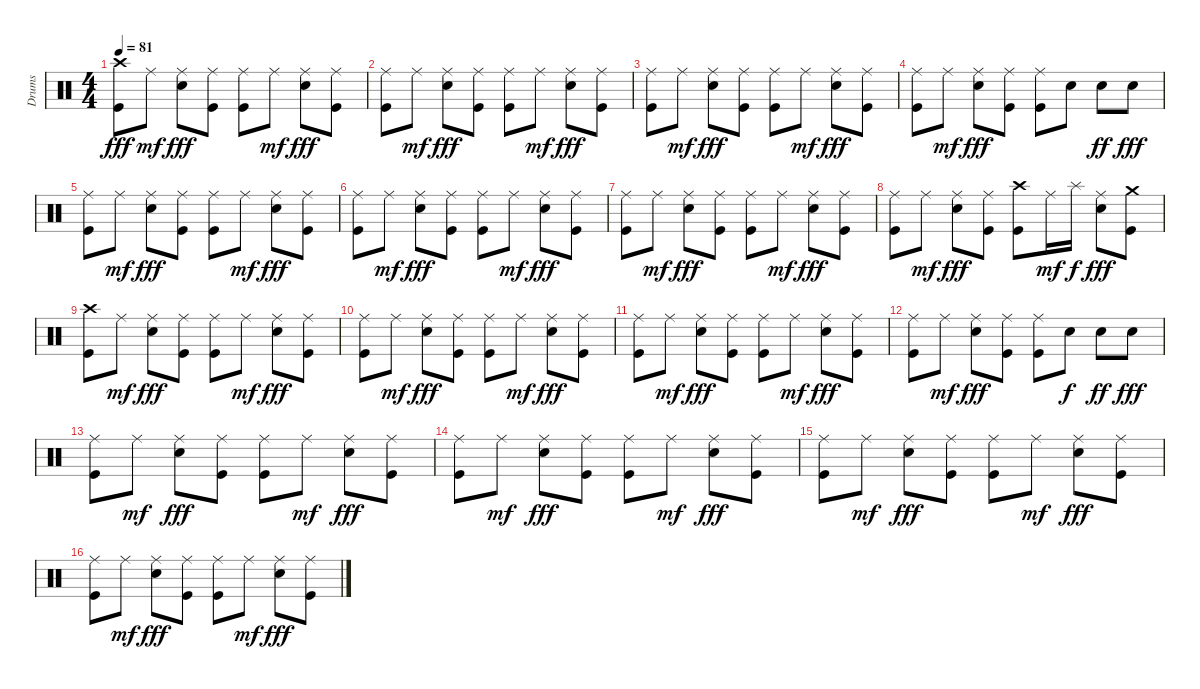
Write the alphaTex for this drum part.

\track ("Drums" "Drums") {instrument percussion}
\staff {score}
\articulation defaults
\ts (4 4)
\tempo 81
\clef neutral
\ks c
("Crash high (hit)" "Kick (hit)").8{dy fff} "Ride (middle)".8{dy mf} ("Ride (middle)" "Snare (hit) 2").8{dy fff} ("Ride (middle)" "Kick (hit)").8 ("Ride (middle)" "Kick (hit)").8 "Ride (middle)".8{dy mf} ("Ride (middle)" "Snare (hit) 2").8{dy fff} ("Ride (middle)" "Kick (hit)").8 |
("Ride (middle)" "Kick (hit)").8 "Ride (middle)".8{dy mf} ("Ride (middle)" "Snare (hit) 2").8{dy fff} ("Ride (middle)" "Kick (hit)").8 ("Ride (middle)" "Kick (hit)").8 "Ride (middle)".8{dy mf} ("Ride (middle)" "Snare (hit) 2").8{dy fff} ("Ride (middle)" "Kick (hit)").8 |
("Ride (middle)" "Kick (hit)").8 "Ride (middle)".8{dy mf} ("Ride (middle)" "Snare (hit) 2").8{dy fff} ("Ride (middle)" "Kick (hit)").8 ("Ride (middle)" "Kick (hit)").8 "Ride (middle)".8{dy mf} ("Ride (middle)" "Snare (hit) 2").8{dy fff} ("Ride (middle)" "Kick (hit)").8 |
("Ride (middle)" "Kick (hit)").8 "Ride (middle)".8{dy mf} ("Ride (middle)" "Snare (hit) 2").8{dy fff} ("Ride (middle)" "Kick (hit)").8 ("Ride (middle)" "Kick (hit)").8 "Snare (hit) 2".8 "Snare (hit) 2".8{dy ff} "Snare (hit) 2".8{dy fff} |
("Ride (middle)" "Kick (hit)").8 "Ride (middle)".8{dy mf} ("Ride (middle)" "Snare (hit) 2").8{dy fff} ("Ride (middle)" "Kick (hit)").8 ("Ride (middle)" "Kick (hit)").8 "Ride (middle)".8{dy mf} ("Ride (middle)" "Snare (hit) 2").8{dy fff} ("Ride (middle)" "Kick (hit)").8 |
("Ride (middle)" "Kick (hit)").8 "Ride (middle)".8{dy mf} ("Ride (middle)" "Snare (hit) 2").8{dy fff} ("Ride (middle)" "Kick (hit)").8 ("Ride (middle)" "Kick (hit)").8 "Ride (middle)".8{dy mf} ("Ride (middle)" "Snare (hit) 2").8{dy fff} ("Ride (middle)" "Kick (hit)").8 |
("Ride (middle)" "Kick (hit)").8 "Ride (middle)".8{dy mf} ("Ride (middle)" "Snare (hit) 2").8{dy fff} ("Ride (middle)" "Kick (hit)").8 ("Ride (middle)" "Kick (hit)").8 "Ride (middle)".8{dy mf} ("Ride (middle)" "Snare (hit) 2").8{dy fff} ("Ride (middle)" "Kick (hit)").8 |
("Ride (middle)" "Kick (hit)").8 "Ride (middle)".8{dy mf} ("Ride (middle)" "Snare (hit) 2").8{dy fff} ("Ride (middle)" "Kick (hit)").8 ("Crash high (hit)" "Kick (hit)").8 "Ride (middle)".16{dy mf} "Splash (hit)".16{dy f} ("Ride (middle)" "Snare (hit) 2").8{dy fff} ("Crash medium (hit)" "Kick (hit)").8 |
("Crash high (hit)" "Kick (hit)").8 "Ride (middle)".8{dy mf} ("Ride (middle)" "Snare (hit) 2").8{dy fff} ("Ride (middle)" "Kick (hit)").8 ("Ride (middle)" "Kick (hit)").8 "Ride (middle)".8{dy mf} ("Ride (middle)" "Snare (hit) 2").8{dy fff} ("Ride (middle)" "Kick (hit)").8 |
("Ride (middle)" "Kick (hit)").8 "Ride (middle)".8{dy mf} ("Ride (middle)" "Snare (hit) 2").8{dy fff} ("Ride (middle)" "Kick (hit)").8 ("Ride (middle)" "Kick (hit)").8 "Ride (middle)".8{dy mf} ("Ride (middle)" "Snare (hit) 2").8{dy fff} ("Ride (middle)" "Kick (hit)").8 |
("Ride (middle)" "Kick (hit)").8 "Ride (middle)".8{dy mf} ("Ride (middle)" "Snare (hit) 2").8{dy fff} ("Ride (middle)" "Kick (hit)").8 ("Ride (middle)" "Kick (hit)").8 "Ride (middle)".8{dy mf} ("Ride (middle)" "Snare (hit) 2").8{dy fff} ("Ride (middle)" "Kick (hit)").8 |
("Ride (middle)" "Kick (hit)").8 "Ride (middle)".8{dy mf} ("Ride (middle)" "Snare (hit) 2").8{dy fff} ("Ride (middle)" "Kick (hit)").8 ("Ride (middle)" "Kick (hit)").8 "Snare (hit) 2".8{dy f} "Snare (hit) 2".8{dy ff} "Snare (hit) 2".8{dy fff} |
("Ride (middle)" "Kick (hit)").8 "Ride (middle)".8{dy mf} ("Ride (middle)" "Snare (hit) 2").8{dy fff} ("Ride (middle)" "Kick (hit)").8 ("Ride (middle)" "Kick (hit)").8 "Ride (middle)".8{dy mf} ("Ride (middle)" "Snare (hit) 2").8{dy fff} ("Ride (middle)" "Kick (hit)").8 |
("Ride (middle)" "Kick (hit)").8 "Ride (middle)".8{dy mf} ("Ride (middle)" "Snare (hit) 2").8{dy fff} ("Ride (middle)" "Kick (hit)").8 ("Ride (middle)" "Kick (hit)").8 "Ride (middle)".8{dy mf} ("Ride (middle)" "Snare (hit) 2").8{dy fff} ("Ride (middle)" "Kick (hit)").8 |
("Ride (middle)" "Kick (hit)").8 "Ride (middle)".8{dy mf} ("Ride (middle)" "Snare (hit) 2").8{dy fff} ("Ride (middle)" "Kick (hit)").8 ("Ride (middle)" "Kick (hit)").8 "Ride (middle)".8{dy mf} ("Ride (middle)" "Snare (hit) 2").8{dy fff} ("Ride (middle)" "Kick (hit)").8 |
("Ride (middle)" "Kick (hit)").8 "Ride (middle)".8{dy mf} ("Ride (middle)" "Snare (hit) 2").8{dy fff} ("Ride (middle)" "Kick (hit)").8 ("Ride (middle)" "Kick (hit)").8 "Ride (middle)".8{dy mf} ("Ride (middle)" "Snare (hit) 2").8{dy fff} ("Ride (middle)" "Kick (hit)").8
